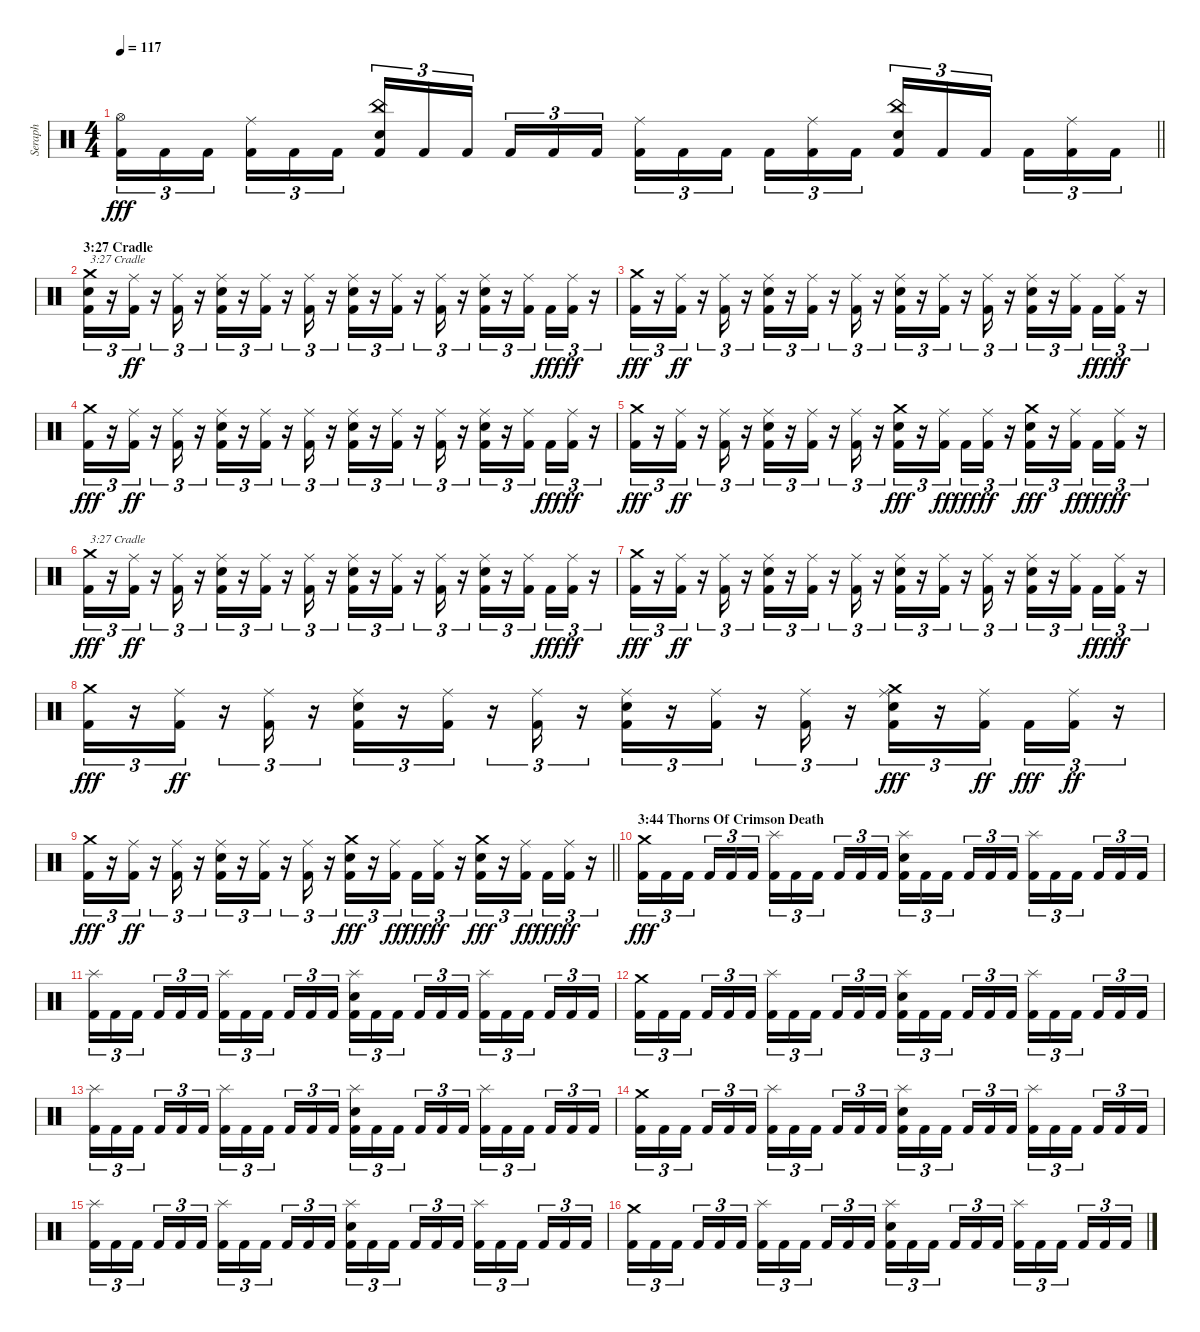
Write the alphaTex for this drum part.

\track ("Seraph" "Seraph") {instrument percussion}
\staff {score}
\articulation defaults
\ts (4 4)
\tempo 117
\clef neutral
\barLineRight lightlight
\ks c
("Hi-Hat (open)" "Kick (hit) 2").16{tu (3 2) dy fff} "Kick (hit) 2".16{tu (3 2)} "Kick (hit) 2".16{tu (3 2) beam splitsecondary} ("Ride (middle)" "Kick (hit) 2").16{tu (3 2)} "Kick (hit) 2".16{tu (3 2)} "Kick (hit) 2".16{tu (3 2)} ("China (hit)" "Electric Snare (hit)" "Kick (hit) 2").16{tu (3 2)} "Kick (hit) 2".16{tu (3 2)} "Kick (hit) 2".16{tu (3 2) beam splitsecondary} "Kick (hit) 2".16{tu (3 2)} "Kick (hit) 2".16{tu (3 2)} "Kick (hit) 2".16{tu (3 2)} ("Ride (middle)" "Kick (hit) 2").16{tu (3 2)} "Kick (hit) 2".16{tu (3 2)} "Kick (hit) 2".16{tu (3 2) beam splitsecondary} "Kick (hit) 2".16{tu (3 2)} ("Ride (middle)" "Kick (hit) 2").16{tu (3 2)} "Kick (hit) 2".16{tu (3 2)} ("China (hit)" "Electric Snare (hit)" "Kick (hit) 2").16{tu (3 2)} "Kick (hit) 2".16{tu (3 2)} "Kick (hit) 2".16{tu (3 2) beam splitsecondary} "Kick (hit) 2".16{tu (3 2)} ("Ride (middle)" "Kick (hit) 2").16{tu (3 2)} "Kick (hit) 2".16{tu (3 2)} |
\section ("" "3:27 Cradle ")
("Kick (hit) 2" "Electric Snare (hit)" "Crash medium (hit)").16{tu (3 2) txt "3:27 Cradle "} r.16{tu (3 2)} ("Kick (hit) 2" "Ride (middle)").16{tu (3 2) dy ff} r.16{tu (3 2)} ("Kick (hit) 2" "Ride (middle)").16{tu (3 2)} r.16{tu (3 2)} ("Kick (hit) 2" "Electric Snare (hit)" "Ride (middle)").16{tu (3 2)} r.16{tu (3 2)} ("Kick (hit) 2" "Ride (middle)").16{tu (3 2)} r.16{tu (3 2)} ("Kick (hit) 2" "Ride (middle)").16{tu (3 2)} r.16{tu (3 2)} ("Kick (hit) 2" "Electric Snare (hit)" "Ride (middle)").16{tu (3 2)} r.16{tu (3 2)} ("Kick (hit) 2" "Ride (middle)").16{tu (3 2)} r.16{tu (3 2)} ("Kick (hit) 2" "Ride (middle)").16{tu (3 2)} r.16{tu (3 2)} ("Kick (hit) 2" "Electric Snare (hit)" "Ride (middle)").16{tu (3 2)} r.16{tu (3 2)} ("Kick (hit) 2" "Ride (middle)").16{tu (3 2) beam splitsecondary} "Kick (hit) 2".16{tu (3 2) dy fff} ("Kick (hit) 2" "Ride (middle)").16{tu (3 2) dy ff} r.16{tu (3 2)} |
("Kick (hit) 2" "Crash medium (hit)").16{tu (3 2) dy fff} r.16{tu (3 2)} ("Kick (hit) 2" "Ride (middle)").16{tu (3 2) dy ff} r.16{tu (3 2)} ("Kick (hit) 2" "Ride (middle)").16{tu (3 2)} r.16{tu (3 2)} ("Kick (hit) 2" "Electric Snare (hit)" "Ride (middle)").16{tu (3 2)} r.16{tu (3 2)} ("Kick (hit) 2" "Ride (middle)").16{tu (3 2)} r.16{tu (3 2)} ("Kick (hit) 2" "Ride (middle)").16{tu (3 2)} r.16{tu (3 2)} ("Kick (hit) 2" "Electric Snare (hit)" "Ride (middle)").16{tu (3 2)} r.16{tu (3 2)} ("Kick (hit) 2" "Ride (middle)").16{tu (3 2)} r.16{tu (3 2)} ("Kick (hit) 2" "Ride (middle)").16{tu (3 2)} r.16{tu (3 2)} ("Kick (hit) 2" "Electric Snare (hit)" "Ride (middle)").16{tu (3 2)} r.16{tu (3 2)} ("Kick (hit) 2" "Ride (middle)").16{tu (3 2) beam splitsecondary} "Kick (hit) 2".16{tu (3 2) dy fff} ("Kick (hit) 2" "Ride (middle)").16{tu (3 2) dy ff} r.16{tu (3 2)} |
("Kick (hit) 2" "Crash medium (hit)").16{tu (3 2) dy fff} r.16{tu (3 2)} ("Kick (hit) 2" "Ride (middle)").16{tu (3 2) dy ff} r.16{tu (3 2)} ("Kick (hit) 2" "Ride (middle)").16{tu (3 2)} r.16{tu (3 2)} ("Kick (hit) 2" "Electric Snare (hit)" "Ride (middle)").16{tu (3 2)} r.16{tu (3 2)} ("Kick (hit) 2" "Ride (middle)").16{tu (3 2)} r.16{tu (3 2)} ("Kick (hit) 2" "Ride (middle)").16{tu (3 2)} r.16{tu (3 2)} ("Kick (hit) 2" "Electric Snare (hit)" "Ride (middle)").16{tu (3 2)} r.16{tu (3 2)} ("Kick (hit) 2" "Ride (middle)").16{tu (3 2)} r.16{tu (3 2)} ("Kick (hit) 2" "Ride (middle)").16{tu (3 2)} r.16{tu (3 2)} ("Kick (hit) 2" "Electric Snare (hit)" "Ride (middle)").16{tu (3 2)} r.16{tu (3 2)} ("Kick (hit) 2" "Ride (middle)").16{tu (3 2) beam splitsecondary} "Kick (hit) 2".16{tu (3 2) dy fff} ("Kick (hit) 2" "Ride (middle)").16{tu (3 2) dy ff} r.16{tu (3 2)} |
("Kick (hit) 2" "Crash medium (hit)").16{tu (3 2) dy fff} r.16{tu (3 2)} ("Kick (hit) 2" "Ride (middle)").16{tu (3 2) dy ff} r.16{tu (3 2)} ("Kick (hit) 2" "Ride (middle)").16{tu (3 2)} r.16{tu (3 2)} ("Kick (hit) 2" "Electric Snare (hit)" "Ride (middle)").16{tu (3 2)} r.16{tu (3 2)} ("Kick (hit) 2" "Ride (middle)").16{tu (3 2)} r.16{tu (3 2)} ("Kick (hit) 2" "Ride (middle)").16{tu (3 2)} r.16{tu (3 2)} ("Kick (hit) 2" "Electric Snare (hit)" "Crash medium (hit)").16{tu (3 2) dy fff} r.16{tu (3 2)} ("Kick (hit) 2" "Ride (middle)").16{tu (3 2) dy ff beam splitsecondary} "Kick (hit) 2".16{tu (3 2) dy fff} ("Kick (hit) 2" "Ride (middle)").16{tu (3 2) dy ff} r.16{tu (3 2)} ("Kick (hit) 2" "Electric Snare (hit)" "Crash medium (hit)").16{tu (3 2) dy fff} r.16{tu (3 2)} ("Kick (hit) 2" "Ride (middle)").16{tu (3 2) dy ff beam splitsecondary} "Kick (hit) 2".16{tu (3 2) dy fff} ("Kick (hit) 2" "Ride (middle)").16{tu (3 2) dy ff} r.16{tu (3 2)} |
("Kick (hit) 2" "Crash medium (hit)").16{tu (3 2) txt "3:27 Cradle " dy fff} r.16{tu (3 2)} ("Kick (hit) 2" "Ride (middle)").16{tu (3 2) dy ff} r.16{tu (3 2)} ("Kick (hit) 2" "Ride (middle)").16{tu (3 2)} r.16{tu (3 2)} ("Kick (hit) 2" "Electric Snare (hit)" "Ride (middle)").16{tu (3 2)} r.16{tu (3 2)} ("Kick (hit) 2" "Ride (middle)").16{tu (3 2)} r.16{tu (3 2)} ("Kick (hit) 2" "Ride (middle)").16{tu (3 2)} r.16{tu (3 2)} ("Kick (hit) 2" "Electric Snare (hit)" "Ride (middle)").16{tu (3 2)} r.16{tu (3 2)} ("Kick (hit) 2" "Ride (middle)").16{tu (3 2)} r.16{tu (3 2)} ("Kick (hit) 2" "Ride (middle)").16{tu (3 2)} r.16{tu (3 2)} ("Kick (hit) 2" "Electric Snare (hit)" "Ride (middle)").16{tu (3 2)} r.16{tu (3 2)} ("Kick (hit) 2" "Ride (middle)").16{tu (3 2) beam splitsecondary} "Kick (hit) 2".16{tu (3 2) dy fff} ("Kick (hit) 2" "Ride (middle)").16{tu (3 2) dy ff} r.16{tu (3 2)} |
("Kick (hit) 2" "Crash medium (hit)").16{tu (3 2) dy fff} r.16{tu (3 2)} ("Kick (hit) 2" "Ride (middle)").16{tu (3 2) dy ff} r.16{tu (3 2)} ("Kick (hit) 2" "Ride (middle)").16{tu (3 2)} r.16{tu (3 2)} ("Kick (hit) 2" "Electric Snare (hit)" "Ride (middle)").16{tu (3 2)} r.16{tu (3 2)} ("Kick (hit) 2" "Ride (middle)").16{tu (3 2)} r.16{tu (3 2)} ("Kick (hit) 2" "Ride (middle)").16{tu (3 2)} r.16{tu (3 2)} ("Kick (hit) 2" "Electric Snare (hit)" "Ride (middle)").16{tu (3 2)} r.16{tu (3 2)} ("Kick (hit) 2" "Ride (middle)").16{tu (3 2)} r.16{tu (3 2)} ("Kick (hit) 2" "Ride (middle)").16{tu (3 2)} r.16{tu (3 2)} ("Kick (hit) 2" "Electric Snare (hit)" "Ride (middle)").16{tu (3 2)} r.16{tu (3 2)} ("Kick (hit) 2" "Ride (middle)").16{tu (3 2) beam splitsecondary} "Kick (hit) 2".16{tu (3 2) dy fff} ("Kick (hit) 2" "Ride (middle)").16{tu (3 2) dy ff} r.16{tu (3 2)} |
("Kick (hit) 2" "Crash medium (hit)").16{tu (3 2) dy fff} r.16{tu (3 2)} ("Kick (hit) 2" "Ride (middle)").16{tu (3 2) dy ff} r.16{tu (3 2)} ("Kick (hit) 2" "Ride (middle)").16{tu (3 2)} r.16{tu (3 2)} ("Kick (hit) 2" "Electric Snare (hit)" "Ride (middle)").16{tu (3 2)} r.16{tu (3 2)} ("Kick (hit) 2" "Ride (middle)").16{tu (3 2)} r.16{tu (3 2)} ("Kick (hit) 2" "Ride (middle)").16{tu (3 2)} r.16{tu (3 2)} ("Kick (hit) 2" "Electric Snare (hit)" "Ride (middle)").16{tu (3 2)} r.16{tu (3 2)} ("Kick (hit) 2" "Ride (middle)").16{tu (3 2)} r.16{tu (3 2)} ("Kick (hit) 2" "Ride (middle)").16{tu (3 2)} r.16{tu (3 2)} ("Kick (hit) 2" "Electric Snare (hit)" "Ride (middle)" "Crash medium (hit)").16{tu (3 2) dy fff} r.16{tu (3 2)} ("Kick (hit) 2" "Ride (middle)").16{tu (3 2) dy ff beam splitsecondary} "Kick (hit) 2".16{tu (3 2) dy fff} ("Kick (hit) 2" "Ride (middle)").16{tu (3 2) dy ff} r.16{tu (3 2)} |
\barLineRight lightlight
("Kick (hit) 2" "Crash medium (hit)").16{tu (3 2) dy fff} r.16{tu (3 2)} ("Kick (hit) 2" "Ride (middle)").16{tu (3 2) dy ff} r.16{tu (3 2)} ("Kick (hit) 2" "Ride (middle)").16{tu (3 2)} r.16{tu (3 2)} ("Kick (hit) 2" "Electric Snare (hit)" "Ride (middle)").16{tu (3 2)} r.16{tu (3 2)} ("Kick (hit) 2" "Ride (middle)").16{tu (3 2)} r.16{tu (3 2)} ("Kick (hit) 2" "Ride (middle)").16{tu (3 2)} r.16{tu (3 2)} ("Kick (hit) 2" "Electric Snare (hit)" "Crash medium (hit)").16{tu (3 2) dy fff} r.16{tu (3 2)} ("Kick (hit) 2" "Ride (middle)").16{tu (3 2) dy ff beam splitsecondary} "Kick (hit) 2".16{tu (3 2) dy fff} ("Kick (hit) 2" "Ride (middle)").16{tu (3 2) dy ff} r.16{tu (3 2)} ("Kick (hit) 2" "Electric Snare (hit)" "Crash medium (hit)").16{tu (3 2) dy fff} r.16{tu (3 2)} ("Kick (hit) 2" "Ride (middle)").16{tu (3 2) dy ff beam splitsecondary} "Kick (hit) 2".16{tu (3 2) dy fff} ("Kick (hit) 2" "Ride (middle)").16{tu (3 2) dy ff} r.16{tu (3 2)} |
\section ("" "3:44 Thorns Of Crimson Death")
("Crash medium (hit)" "Kick (hit) 2").16{tu (3 2) dy fff} "Kick (hit) 2".16{tu (3 2)} "Kick (hit) 2".16{tu (3 2) beam splitsecondary} "Kick (hit) 2".16{tu (3 2)} "Kick (hit) 2".16{tu (3 2)} "Kick (hit) 2".16{tu (3 2)} ("Splash (hit)" "Kick (hit) 2").16{tu (3 2)} "Kick (hit) 2".16{tu (3 2)} "Kick (hit) 2".16{tu (3 2) beam splitsecondary} "Kick (hit) 2".16{tu (3 2)} "Kick (hit) 2".16{tu (3 2)} "Kick (hit) 2".16{tu (3 2)} ("Splash (hit)" "Electric Snare (hit)" "Kick (hit) 2").16{tu (3 2)} "Kick (hit) 2".16{tu (3 2)} "Kick (hit) 2".16{tu (3 2) beam splitsecondary} "Kick (hit) 2".16{tu (3 2)} "Kick (hit) 2".16{tu (3 2)} "Kick (hit) 2".16{tu (3 2)} ("Splash (hit)" "Kick (hit) 2").16{tu (3 2)} "Kick (hit) 2".16{tu (3 2)} "Kick (hit) 2".16{tu (3 2) beam splitsecondary} "Kick (hit) 2".16{tu (3 2)} "Kick (hit) 2".16{tu (3 2)} "Kick (hit) 2".16{tu (3 2)} |
("Splash (hit)" "Kick (hit) 2").16{tu (3 2)} "Kick (hit) 2".16{tu (3 2)} "Kick (hit) 2".16{tu (3 2) beam splitsecondary} "Kick (hit) 2".16{tu (3 2)} "Kick (hit) 2".16{tu (3 2)} "Kick (hit) 2".16{tu (3 2)} ("Splash (hit)" "Kick (hit) 2").16{tu (3 2)} "Kick (hit) 2".16{tu (3 2)} "Kick (hit) 2".16{tu (3 2) beam splitsecondary} "Kick (hit) 2".16{tu (3 2)} "Kick (hit) 2".16{tu (3 2)} "Kick (hit) 2".16{tu (3 2)} ("Splash (hit)" "Electric Snare (hit)" "Kick (hit) 2").16{tu (3 2)} "Kick (hit) 2".16{tu (3 2)} "Kick (hit) 2".16{tu (3 2) beam splitsecondary} "Kick (hit) 2".16{tu (3 2)} "Kick (hit) 2".16{tu (3 2)} "Kick (hit) 2".16{tu (3 2)} ("Splash (hit)" "Kick (hit) 2").16{tu (3 2)} "Kick (hit) 2".16{tu (3 2)} "Kick (hit) 2".16{tu (3 2) beam splitsecondary} "Kick (hit) 2".16{tu (3 2)} "Kick (hit) 2".16{tu (3 2)} "Kick (hit) 2".16{tu (3 2)} |
("Crash medium (hit)" "Kick (hit) 2").16{tu (3 2)} "Kick (hit) 2".16{tu (3 2)} "Kick (hit) 2".16{tu (3 2) beam splitsecondary} "Kick (hit) 2".16{tu (3 2)} "Kick (hit) 2".16{tu (3 2)} "Kick (hit) 2".16{tu (3 2)} ("Splash (hit)" "Kick (hit) 2").16{tu (3 2)} "Kick (hit) 2".16{tu (3 2)} "Kick (hit) 2".16{tu (3 2) beam splitsecondary} "Kick (hit) 2".16{tu (3 2)} "Kick (hit) 2".16{tu (3 2)} "Kick (hit) 2".16{tu (3 2)} ("Splash (hit)" "Electric Snare (hit)" "Kick (hit) 2").16{tu (3 2)} "Kick (hit) 2".16{tu (3 2)} "Kick (hit) 2".16{tu (3 2) beam splitsecondary} "Kick (hit) 2".16{tu (3 2)} "Kick (hit) 2".16{tu (3 2)} "Kick (hit) 2".16{tu (3 2)} ("Splash (hit)" "Kick (hit) 2").16{tu (3 2)} "Kick (hit) 2".16{tu (3 2)} "Kick (hit) 2".16{tu (3 2) beam splitsecondary} "Kick (hit) 2".16{tu (3 2)} "Kick (hit) 2".16{tu (3 2)} "Kick (hit) 2".16{tu (3 2)} |
("Splash (hit)" "Kick (hit) 2").16{tu (3 2)} "Kick (hit) 2".16{tu (3 2)} "Kick (hit) 2".16{tu (3 2) beam splitsecondary} "Kick (hit) 2".16{tu (3 2)} "Kick (hit) 2".16{tu (3 2)} "Kick (hit) 2".16{tu (3 2)} ("Splash (hit)" "Kick (hit) 2").16{tu (3 2)} "Kick (hit) 2".16{tu (3 2)} "Kick (hit) 2".16{tu (3 2) beam splitsecondary} "Kick (hit) 2".16{tu (3 2)} "Kick (hit) 2".16{tu (3 2)} "Kick (hit) 2".16{tu (3 2)} ("Splash (hit)" "Electric Snare (hit)" "Kick (hit) 2").16{tu (3 2)} "Kick (hit) 2".16{tu (3 2)} "Kick (hit) 2".16{tu (3 2) beam splitsecondary} "Kick (hit) 2".16{tu (3 2)} "Kick (hit) 2".16{tu (3 2)} "Kick (hit) 2".16{tu (3 2)} ("Splash (hit)" "Kick (hit) 2").16{tu (3 2)} "Kick (hit) 2".16{tu (3 2)} "Kick (hit) 2".16{tu (3 2) beam splitsecondary} "Kick (hit) 2".16{tu (3 2)} "Kick (hit) 2".16{tu (3 2)} "Kick (hit) 2".16{tu (3 2)} |
("Crash medium (hit)" "Kick (hit) 2").16{tu (3 2)} "Kick (hit) 2".16{tu (3 2)} "Kick (hit) 2".16{tu (3 2) beam splitsecondary} "Kick (hit) 2".16{tu (3 2)} "Kick (hit) 2".16{tu (3 2)} "Kick (hit) 2".16{tu (3 2)} ("Splash (hit)" "Kick (hit) 2").16{tu (3 2)} "Kick (hit) 2".16{tu (3 2)} "Kick (hit) 2".16{tu (3 2) beam splitsecondary} "Kick (hit) 2".16{tu (3 2)} "Kick (hit) 2".16{tu (3 2)} "Kick (hit) 2".16{tu (3 2)} ("Splash (hit)" "Electric Snare (hit)" "Kick (hit) 2").16{tu (3 2)} "Kick (hit) 2".16{tu (3 2)} "Kick (hit) 2".16{tu (3 2) beam splitsecondary} "Kick (hit) 2".16{tu (3 2)} "Kick (hit) 2".16{tu (3 2)} "Kick (hit) 2".16{tu (3 2)} ("Splash (hit)" "Kick (hit) 2").16{tu (3 2)} "Kick (hit) 2".16{tu (3 2)} "Kick (hit) 2".16{tu (3 2) beam splitsecondary} "Kick (hit) 2".16{tu (3 2)} "Kick (hit) 2".16{tu (3 2)} "Kick (hit) 2".16{tu (3 2)} |
("Splash (hit)" "Kick (hit) 2").16{tu (3 2)} "Kick (hit) 2".16{tu (3 2)} "Kick (hit) 2".16{tu (3 2) beam splitsecondary} "Kick (hit) 2".16{tu (3 2)} "Kick (hit) 2".16{tu (3 2)} "Kick (hit) 2".16{tu (3 2)} ("Splash (hit)" "Kick (hit) 2").16{tu (3 2)} "Kick (hit) 2".16{tu (3 2)} "Kick (hit) 2".16{tu (3 2) beam splitsecondary} "Kick (hit) 2".16{tu (3 2)} "Kick (hit) 2".16{tu (3 2)} "Kick (hit) 2".16{tu (3 2)} ("Splash (hit)" "Electric Snare (hit)" "Kick (hit) 2").16{tu (3 2)} "Kick (hit) 2".16{tu (3 2)} "Kick (hit) 2".16{tu (3 2) beam splitsecondary} "Kick (hit) 2".16{tu (3 2)} "Kick (hit) 2".16{tu (3 2)} "Kick (hit) 2".16{tu (3 2)} ("Splash (hit)" "Kick (hit) 2").16{tu (3 2)} "Kick (hit) 2".16{tu (3 2)} "Kick (hit) 2".16{tu (3 2) beam splitsecondary} "Kick (hit) 2".16{tu (3 2)} "Kick (hit) 2".16{tu (3 2)} "Kick (hit) 2".16{tu (3 2)} |
("Crash medium (hit)" "Kick (hit) 2").16{tu (3 2)} "Kick (hit) 2".16{tu (3 2)} "Kick (hit) 2".16{tu (3 2) beam splitsecondary} "Kick (hit) 2".16{tu (3 2)} "Kick (hit) 2".16{tu (3 2)} "Kick (hit) 2".16{tu (3 2)} ("Splash (hit)" "Kick (hit) 2").16{tu (3 2)} "Kick (hit) 2".16{tu (3 2)} "Kick (hit) 2".16{tu (3 2) beam splitsecondary} "Kick (hit) 2".16{tu (3 2)} "Kick (hit) 2".16{tu (3 2)} "Kick (hit) 2".16{tu (3 2)} ("Splash (hit)" "Electric Snare (hit)" "Kick (hit) 2").16{tu (3 2)} "Kick (hit) 2".16{tu (3 2)} "Kick (hit) 2".16{tu (3 2) beam splitsecondary} "Kick (hit) 2".16{tu (3 2)} "Kick (hit) 2".16{tu (3 2)} "Kick (hit) 2".16{tu (3 2)} ("Splash (hit)" "Kick (hit) 2").16{tu (3 2)} "Kick (hit) 2".16{tu (3 2)} "Kick (hit) 2".16{tu (3 2) beam splitsecondary} "Kick (hit) 2".16{tu (3 2)} "Kick (hit) 2".16{tu (3 2)} "Kick (hit) 2".16{tu (3 2)}
